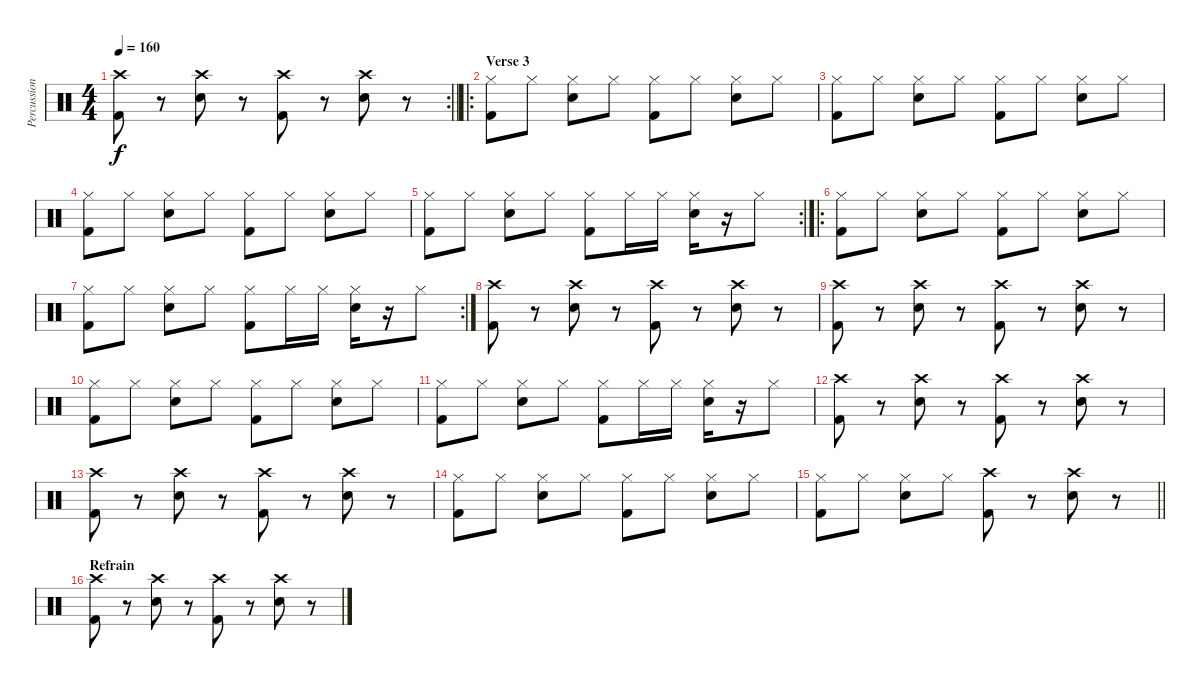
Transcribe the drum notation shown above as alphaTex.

\track ("Percussions" "Percussion") {instrument percussion}
\staff {score}
\articulation defaults
\rc 2
\ts (4 4)
\tempo 160
\clef neutral
\barLineRight lightlight
\ks c
("Crash high (hit)" "Kick (hit) 2").8{dy f} r.8 ("Crash high (hit)" "Electric Snare (hit)").8 r.8 ("Crash high (hit)" "Kick (hit) 2").8 r.8 ("Crash high (hit)" "Electric Snare (hit)").8 r.8 |
\ro
\section ("" "Verse 3")
("Hi-Hat (closed)" "Kick (hit) 2").8 "Hi-Hat (closed)".8 ("Hi-Hat (closed)" "Electric Snare (hit)").8 "Hi-Hat (closed)".8 ("Hi-Hat (closed)" "Kick (hit) 2").8 "Hi-Hat (closed)".8 ("Hi-Hat (closed)" "Electric Snare (hit)").8 "Hi-Hat (closed)".8 |
("Hi-Hat (closed)" "Kick (hit) 2").8 "Hi-Hat (closed)".8 ("Hi-Hat (closed)" "Electric Snare (hit)").8 "Hi-Hat (closed)".8 ("Hi-Hat (closed)" "Kick (hit) 2").8 "Hi-Hat (closed)".8 ("Hi-Hat (closed)" "Electric Snare (hit)").8 "Hi-Hat (closed)".8 |
("Hi-Hat (closed)" "Kick (hit) 2").8 "Hi-Hat (closed)".8 ("Hi-Hat (closed)" "Electric Snare (hit)").8 "Hi-Hat (closed)".8 ("Hi-Hat (closed)" "Kick (hit) 2").8 "Hi-Hat (closed)".8 ("Hi-Hat (closed)" "Electric Snare (hit)").8 "Hi-Hat (closed)".8 |
\rc 2
("Hi-Hat (closed)" "Kick (hit) 2").8 "Hi-Hat (closed)".8 ("Hi-Hat (closed)" "Electric Snare (hit)").8 "Hi-Hat (closed)".8 ("Hi-Hat (closed)" "Kick (hit) 2").8 "Hi-Hat (closed)".16 "Hi-Hat (closed)".16 ("Hi-Hat (closed)" "Electric Snare (hit)").16 r.16 "Hi-Hat (closed)".8 |
\ro
("Hi-Hat (closed)" "Kick (hit) 2").8 "Hi-Hat (closed)".8 ("Hi-Hat (closed)" "Electric Snare (hit)").8 "Hi-Hat (closed)".8 ("Hi-Hat (closed)" "Kick (hit) 2").8 "Hi-Hat (closed)".8 ("Hi-Hat (closed)" "Electric Snare (hit)").8 "Hi-Hat (closed)".8 |
\rc 2
("Hi-Hat (closed)" "Kick (hit) 2").8 "Hi-Hat (closed)".8 ("Hi-Hat (closed)" "Electric Snare (hit)").8 "Hi-Hat (closed)".8 ("Hi-Hat (closed)" "Kick (hit) 2").8 "Hi-Hat (closed)".16 "Hi-Hat (closed)".16 ("Hi-Hat (closed)" "Electric Snare (hit)").16 r.16 "Hi-Hat (closed)".8 |
("Crash high (hit)" "Kick (hit) 2").8 r.8 ("Crash high (hit)" "Electric Snare (hit)").8 r.8 ("Crash high (hit)" "Kick (hit) 2").8 r.8 ("Crash high (hit)" "Electric Snare (hit)").8 r.8 |
("Crash high (hit)" "Kick (hit) 2").8 r.8 ("Crash high (hit)" "Electric Snare (hit)").8 r.8 ("Crash high (hit)" "Kick (hit) 2").8 r.8 ("Crash high (hit)" "Electric Snare (hit)").8 r.8 |
("Hi-Hat (closed)" "Kick (hit) 2").8 "Hi-Hat (closed)".8 ("Hi-Hat (closed)" "Electric Snare (hit)").8 "Hi-Hat (closed)".8 ("Hi-Hat (closed)" "Kick (hit) 2").8 "Hi-Hat (closed)".8 ("Hi-Hat (closed)" "Electric Snare (hit)").8 "Hi-Hat (closed)".8 |
("Hi-Hat (closed)" "Kick (hit) 2").8 "Hi-Hat (closed)".8 ("Hi-Hat (closed)" "Electric Snare (hit)").8 "Hi-Hat (closed)".8 ("Hi-Hat (closed)" "Kick (hit) 2").8 "Hi-Hat (closed)".16 "Hi-Hat (closed)".16 ("Hi-Hat (closed)" "Electric Snare (hit)").16 r.16 "Hi-Hat (closed)".8 |
("Crash high (hit)" "Kick (hit) 2").8 r.8 ("Crash high (hit)" "Electric Snare (hit)").8 r.8 ("Crash high (hit)" "Kick (hit) 2").8 r.8 ("Crash high (hit)" "Electric Snare (hit)").8 r.8 |
("Crash high (hit)" "Kick (hit) 2").8 r.8 ("Crash high (hit)" "Electric Snare (hit)").8 r.8 ("Crash high (hit)" "Kick (hit) 2").8 r.8 ("Crash high (hit)" "Electric Snare (hit)").8 r.8 |
("Hi-Hat (closed)" "Kick (hit) 2").8 "Hi-Hat (closed)".8 ("Hi-Hat (closed)" "Electric Snare (hit)").8 "Hi-Hat (closed)".8 ("Hi-Hat (closed)" "Kick (hit) 2").8 "Hi-Hat (closed)".8 ("Hi-Hat (closed)" "Electric Snare (hit)").8 "Hi-Hat (closed)".8 |
\barLineRight lightlight
("Hi-Hat (closed)" "Kick (hit) 2").8 "Hi-Hat (closed)".8 ("Hi-Hat (closed)" "Electric Snare (hit)").8 "Hi-Hat (closed)".8 ("Crash high (hit)" "Kick (hit) 2").8 r.8 ("Crash high (hit)" "Electric Snare (hit)").8 r.8 |
\section ("" "Refrain")
("Crash high (hit)" "Kick (hit) 2").8 r.8 ("Crash high (hit)" "Electric Snare (hit)").8 r.8 ("Crash high (hit)" "Kick (hit) 2").8 r.8 ("Crash high (hit)" "Electric Snare (hit)").8 r.8
